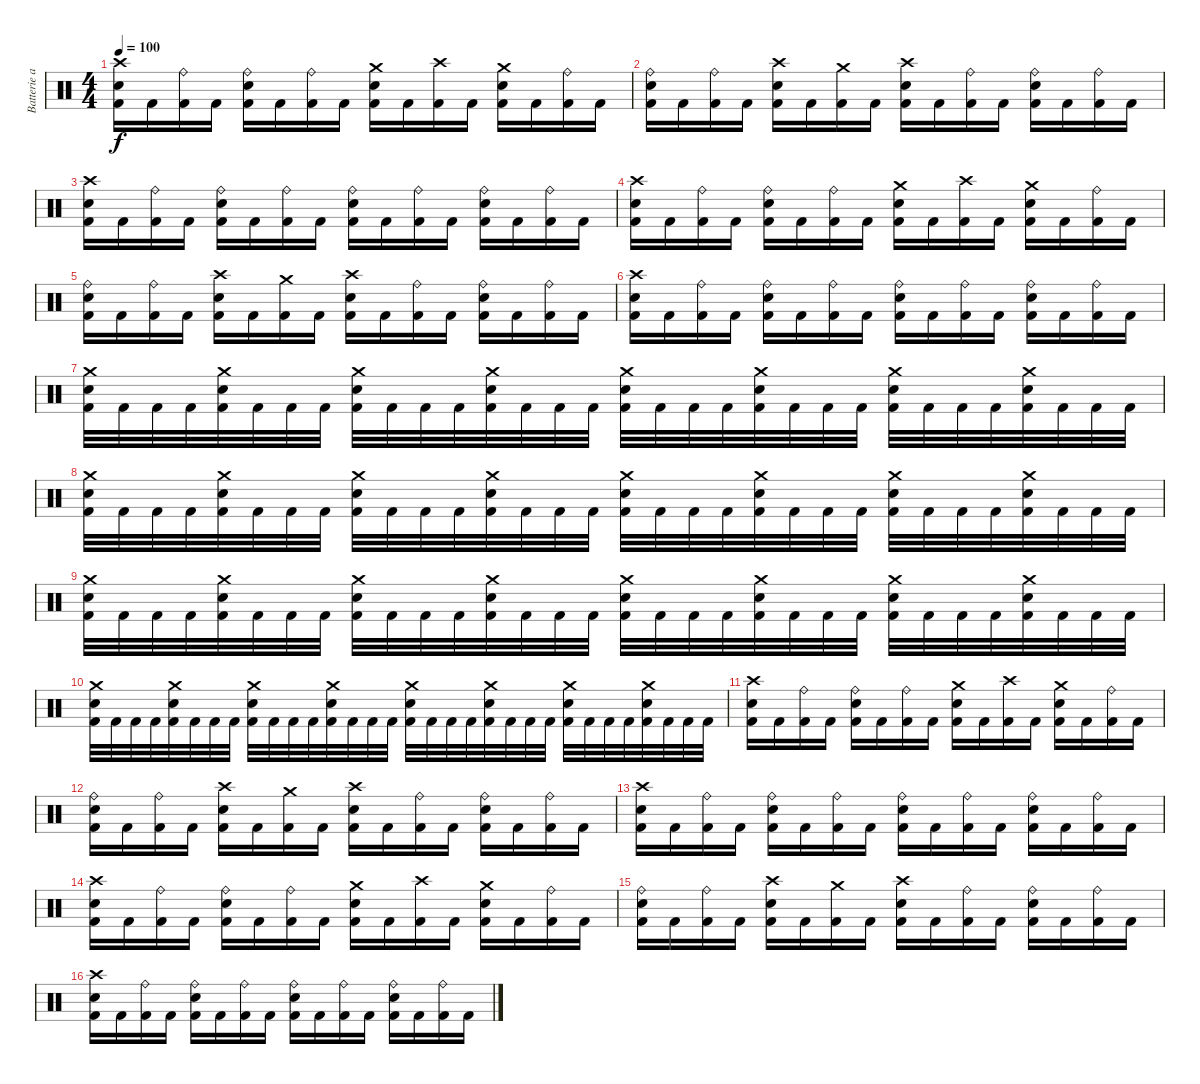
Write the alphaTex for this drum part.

\track ("Batterie and Effects" "Batterie a") {instrument percussion}
\staff {score}
\articulation defaults
\ts (4 4)
\tempo 100
\clef neutral
\ks c
("Crash high (hit)" "Electric Snare (hit)" "Kick (hit) 2").16{dy f} "Kick (hit) 2".16 ("Ride (bell)" "Kick (hit) 2").16 "Kick (hit) 2".16 ("Ride (bell)" "Electric Snare (hit)" "Kick (hit) 2").16 "Kick (hit) 2".16 ("Ride (bell)" "Kick (hit) 2").16 "Kick (hit) 2".16 ("Crash medium (hit)" "Electric Snare (hit)" "Kick (hit) 2").16 "Kick (hit) 2".16 ("Crash high (hit)" "Kick (hit) 2").16 "Kick (hit) 2".16 ("Crash medium (hit)" "Electric Snare (hit)" "Kick (hit) 2").16 "Kick (hit) 2".16 ("Ride (bell)" "Kick (hit) 2").16 "Kick (hit) 2".16 |
("Ride (bell)" "Electric Snare (hit)" "Kick (hit) 2").16 "Kick (hit) 2".16 ("Ride (bell)" "Kick (hit) 2").16 "Kick (hit) 2".16 ("Crash high (hit)" "Electric Snare (hit)" "Kick (hit) 2").16 "Kick (hit) 2".16 ("Crash medium (hit)" "Kick (hit) 2").16 "Kick (hit) 2".16 ("Crash high (hit)" "Electric Snare (hit)" "Kick (hit) 2").16 "Kick (hit) 2".16 ("Ride (bell)" "Kick (hit) 2").16 "Kick (hit) 2".16 ("Ride (bell)" "Electric Snare (hit)" "Kick (hit) 2").16 "Kick (hit) 2".16 ("Ride (bell)" "Kick (hit) 2").16 "Kick (hit) 2".16 |
("Crash high (hit)" "Electric Snare (hit)" "Kick (hit) 2").16 "Kick (hit) 2".16 ("Ride (bell)" "Kick (hit) 2").16 "Kick (hit) 2".16 ("Ride (bell)" "Electric Snare (hit)" "Kick (hit) 2").16 "Kick (hit) 2".16 ("Ride (bell)" "Kick (hit) 2").16 "Kick (hit) 2".16 ("Ride (bell)" "Electric Snare (hit)" "Kick (hit) 2").16 "Kick (hit) 2".16 ("Ride (bell)" "Kick (hit) 2").16 "Kick (hit) 2".16 ("Ride (bell)" "Electric Snare (hit)" "Kick (hit) 2").16 "Kick (hit) 2".16 ("Ride (bell)" "Kick (hit) 2").16 "Kick (hit) 2".16 |
("Crash high (hit)" "Electric Snare (hit)" "Kick (hit) 2").16 "Kick (hit) 2".16 ("Ride (bell)" "Kick (hit) 2").16 "Kick (hit) 2".16 ("Ride (bell)" "Electric Snare (hit)" "Kick (hit) 2").16 "Kick (hit) 2".16 ("Ride (bell)" "Kick (hit) 2").16 "Kick (hit) 2".16 ("Crash medium (hit)" "Electric Snare (hit)" "Kick (hit) 2").16 "Kick (hit) 2".16 ("Crash high (hit)" "Kick (hit) 2").16 "Kick (hit) 2".16 ("Crash medium (hit)" "Electric Snare (hit)" "Kick (hit) 2").16 "Kick (hit) 2".16 ("Ride (bell)" "Kick (hit) 2").16 "Kick (hit) 2".16 |
("Ride (bell)" "Electric Snare (hit)" "Kick (hit) 2").16 "Kick (hit) 2".16 ("Ride (bell)" "Kick (hit) 2").16 "Kick (hit) 2".16 ("Crash high (hit)" "Electric Snare (hit)" "Kick (hit) 2").16 "Kick (hit) 2".16 ("Crash medium (hit)" "Kick (hit) 2").16 "Kick (hit) 2".16 ("Crash high (hit)" "Electric Snare (hit)" "Kick (hit) 2").16 "Kick (hit) 2".16 ("Ride (bell)" "Kick (hit) 2").16 "Kick (hit) 2".16 ("Ride (bell)" "Electric Snare (hit)" "Kick (hit) 2").16 "Kick (hit) 2".16 ("Ride (bell)" "Kick (hit) 2").16 "Kick (hit) 2".16 |
("Crash high (hit)" "Electric Snare (hit)" "Kick (hit) 2").16 "Kick (hit) 2".16 ("Ride (bell)" "Kick (hit) 2").16 "Kick (hit) 2".16 ("Ride (bell)" "Electric Snare (hit)" "Kick (hit) 2").16 "Kick (hit) 2".16 ("Ride (bell)" "Kick (hit) 2").16 "Kick (hit) 2".16 ("Ride (bell)" "Electric Snare (hit)" "Kick (hit) 2").16 "Kick (hit) 2".16 ("Ride (bell)" "Kick (hit) 2").16 "Kick (hit) 2".16 ("Ride (bell)" "Electric Snare (hit)" "Kick (hit) 2").16 "Kick (hit) 2".16 ("Ride (bell)" "Kick (hit) 2").16 "Kick (hit) 2".16 |
("Crash medium (hit)" "Electric Snare (hit)" "Kick (hit) 2").32 "Kick (hit) 2".32 "Kick (hit) 2".32 "Kick (hit) 2".32 ("Crash medium (hit)" "Electric Snare (hit)" "Kick (hit) 2").32 "Kick (hit) 2".32 "Kick (hit) 2".32 "Kick (hit) 2".32 ("Crash medium (hit)" "Electric Snare (hit)" "Kick (hit) 2").32 "Kick (hit) 2".32 "Kick (hit) 2".32 "Kick (hit) 2".32 ("Crash medium (hit)" "Electric Snare (hit)" "Kick (hit) 2").32 "Kick (hit) 2".32 "Kick (hit) 2".32 "Kick (hit) 2".32 ("Crash medium (hit)" "Electric Snare (hit)" "Kick (hit) 2").32 "Kick (hit) 2".32 "Kick (hit) 2".32 "Kick (hit) 2".32 ("Crash medium (hit)" "Electric Snare (hit)" "Kick (hit) 2").32 "Kick (hit) 2".32 "Kick (hit) 2".32 "Kick (hit) 2".32 ("Crash medium (hit)" "Electric Snare (hit)" "Kick (hit) 2").32 "Kick (hit) 2".32 "Kick (hit) 2".32 "Kick (hit) 2".32 ("Crash medium (hit)" "Electric Snare (hit)" "Kick (hit) 2").32 "Kick (hit) 2".32 "Kick (hit) 2".32 "Kick (hit) 2".32 |
("Crash medium (hit)" "Electric Snare (hit)" "Kick (hit) 2").32 "Kick (hit) 2".32 "Kick (hit) 2".32 "Kick (hit) 2".32 ("Crash medium (hit)" "Electric Snare (hit)" "Kick (hit) 2").32 "Kick (hit) 2".32 "Kick (hit) 2".32 "Kick (hit) 2".32 ("Crash medium (hit)" "Electric Snare (hit)" "Kick (hit) 2").32 "Kick (hit) 2".32 "Kick (hit) 2".32 "Kick (hit) 2".32 ("Crash medium (hit)" "Electric Snare (hit)" "Kick (hit) 2").32 "Kick (hit) 2".32 "Kick (hit) 2".32 "Kick (hit) 2".32 ("Crash medium (hit)" "Electric Snare (hit)" "Kick (hit) 2").32 "Kick (hit) 2".32 "Kick (hit) 2".32 "Kick (hit) 2".32 ("Crash medium (hit)" "Electric Snare (hit)" "Kick (hit) 2").32 "Kick (hit) 2".32 "Kick (hit) 2".32 "Kick (hit) 2".32 ("Crash medium (hit)" "Electric Snare (hit)" "Kick (hit) 2").32 "Kick (hit) 2".32 "Kick (hit) 2".32 "Kick (hit) 2".32 ("Crash medium (hit)" "Electric Snare (hit)" "Kick (hit) 2").32 "Kick (hit) 2".32 "Kick (hit) 2".32 "Kick (hit) 2".32 |
("Crash medium (hit)" "Electric Snare (hit)" "Kick (hit) 2").32 "Kick (hit) 2".32 "Kick (hit) 2".32 "Kick (hit) 2".32 ("Crash medium (hit)" "Electric Snare (hit)" "Kick (hit) 2").32 "Kick (hit) 2".32 "Kick (hit) 2".32 "Kick (hit) 2".32 ("Crash medium (hit)" "Electric Snare (hit)" "Kick (hit) 2").32 "Kick (hit) 2".32 "Kick (hit) 2".32 "Kick (hit) 2".32 ("Crash medium (hit)" "Electric Snare (hit)" "Kick (hit) 2").32 "Kick (hit) 2".32 "Kick (hit) 2".32 "Kick (hit) 2".32 ("Crash medium (hit)" "Electric Snare (hit)" "Kick (hit) 2").32 "Kick (hit) 2".32 "Kick (hit) 2".32 "Kick (hit) 2".32 ("Crash medium (hit)" "Electric Snare (hit)" "Kick (hit) 2").32 "Kick (hit) 2".32 "Kick (hit) 2".32 "Kick (hit) 2".32 ("Crash medium (hit)" "Electric Snare (hit)" "Kick (hit) 2").32 "Kick (hit) 2".32 "Kick (hit) 2".32 "Kick (hit) 2".32 ("Crash medium (hit)" "Electric Snare (hit)" "Kick (hit) 2").32 "Kick (hit) 2".32 "Kick (hit) 2".32 "Kick (hit) 2".32 |
("Crash medium (hit)" "Electric Snare (hit)" "Kick (hit) 2").32 "Kick (hit) 2".32 "Kick (hit) 2".32 "Kick (hit) 2".32 ("Crash medium (hit)" "Electric Snare (hit)" "Kick (hit) 2").32 "Kick (hit) 2".32 "Kick (hit) 2".32 "Kick (hit) 2".32 ("Crash medium (hit)" "Electric Snare (hit)" "Kick (hit) 2").32 "Kick (hit) 2".32 "Kick (hit) 2".32 "Kick (hit) 2".32 ("Crash medium (hit)" "Electric Snare (hit)" "Kick (hit) 2").32 "Kick (hit) 2".32 "Kick (hit) 2".32 "Kick (hit) 2".32 ("Crash medium (hit)" "Electric Snare (hit)" "Kick (hit) 2").32 "Kick (hit) 2".32 "Kick (hit) 2".32 "Kick (hit) 2".32 ("Crash medium (hit)" "Electric Snare (hit)" "Kick (hit) 2").32 "Kick (hit) 2".32 "Kick (hit) 2".32 "Kick (hit) 2".32 ("Crash medium (hit)" "Electric Snare (hit)" "Kick (hit) 2").32 "Kick (hit) 2".32 "Kick (hit) 2".32 "Kick (hit) 2".32 ("Crash medium (hit)" "Electric Snare (hit)" "Kick (hit) 2").32 "Kick (hit) 2".32 "Kick (hit) 2".32 "Kick (hit) 2".32 |
("Crash high (hit)" "Electric Snare (hit)" "Kick (hit) 2").16 "Kick (hit) 2".16 ("Ride (bell)" "Kick (hit) 2").16 "Kick (hit) 2".16 ("Ride (bell)" "Electric Snare (hit)" "Kick (hit) 2").16 "Kick (hit) 2".16 ("Ride (bell)" "Kick (hit) 2").16 "Kick (hit) 2".16 ("Crash medium (hit)" "Electric Snare (hit)" "Kick (hit) 2").16 "Kick (hit) 2".16 ("Crash high (hit)" "Kick (hit) 2").16 "Kick (hit) 2".16 ("Crash medium (hit)" "Electric Snare (hit)" "Kick (hit) 2").16 "Kick (hit) 2".16 ("Ride (bell)" "Kick (hit) 2").16 "Kick (hit) 2".16 |
("Ride (bell)" "Electric Snare (hit)" "Kick (hit) 2").16 "Kick (hit) 2".16 ("Ride (bell)" "Kick (hit) 2").16 "Kick (hit) 2".16 ("Crash high (hit)" "Electric Snare (hit)" "Kick (hit) 2").16 "Kick (hit) 2".16 ("Crash medium (hit)" "Kick (hit) 2").16 "Kick (hit) 2".16 ("Crash high (hit)" "Electric Snare (hit)" "Kick (hit) 2").16 "Kick (hit) 2".16 ("Ride (bell)" "Kick (hit) 2").16 "Kick (hit) 2".16 ("Ride (bell)" "Electric Snare (hit)" "Kick (hit) 2").16 "Kick (hit) 2".16 ("Ride (bell)" "Kick (hit) 2").16 "Kick (hit) 2".16 |
("Crash high (hit)" "Electric Snare (hit)" "Kick (hit) 2").16 "Kick (hit) 2".16 ("Ride (bell)" "Kick (hit) 2").16 "Kick (hit) 2".16 ("Ride (bell)" "Electric Snare (hit)" "Kick (hit) 2").16 "Kick (hit) 2".16 ("Ride (bell)" "Kick (hit) 2").16 "Kick (hit) 2".16 ("Ride (bell)" "Electric Snare (hit)" "Kick (hit) 2").16 "Kick (hit) 2".16 ("Ride (bell)" "Kick (hit) 2").16 "Kick (hit) 2".16 ("Ride (bell)" "Electric Snare (hit)" "Kick (hit) 2").16 "Kick (hit) 2".16 ("Ride (bell)" "Kick (hit) 2").16 "Kick (hit) 2".16 |
("Crash high (hit)" "Electric Snare (hit)" "Kick (hit) 2").16 "Kick (hit) 2".16 ("Ride (bell)" "Kick (hit) 2").16 "Kick (hit) 2".16 ("Ride (bell)" "Electric Snare (hit)" "Kick (hit) 2").16 "Kick (hit) 2".16 ("Ride (bell)" "Kick (hit) 2").16 "Kick (hit) 2".16 ("Crash medium (hit)" "Electric Snare (hit)" "Kick (hit) 2").16 "Kick (hit) 2".16 ("Crash high (hit)" "Kick (hit) 2").16 "Kick (hit) 2".16 ("Crash medium (hit)" "Electric Snare (hit)" "Kick (hit) 2").16 "Kick (hit) 2".16 ("Ride (bell)" "Kick (hit) 2").16 "Kick (hit) 2".16 |
("Ride (bell)" "Electric Snare (hit)" "Kick (hit) 2").16 "Kick (hit) 2".16 ("Ride (bell)" "Kick (hit) 2").16 "Kick (hit) 2".16 ("Crash high (hit)" "Electric Snare (hit)" "Kick (hit) 2").16 "Kick (hit) 2".16 ("Crash medium (hit)" "Kick (hit) 2").16 "Kick (hit) 2".16 ("Crash high (hit)" "Electric Snare (hit)" "Kick (hit) 2").16 "Kick (hit) 2".16 ("Ride (bell)" "Kick (hit) 2").16 "Kick (hit) 2".16 ("Ride (bell)" "Electric Snare (hit)" "Kick (hit) 2").16 "Kick (hit) 2".16 ("Ride (bell)" "Kick (hit) 2").16 "Kick (hit) 2".16 |
("Crash high (hit)" "Electric Snare (hit)" "Kick (hit) 2").16 "Kick (hit) 2".16 ("Ride (bell)" "Kick (hit) 2").16 "Kick (hit) 2".16 ("Ride (bell)" "Electric Snare (hit)" "Kick (hit) 2").16 "Kick (hit) 2".16 ("Ride (bell)" "Kick (hit) 2").16 "Kick (hit) 2".16 ("Ride (bell)" "Electric Snare (hit)" "Kick (hit) 2").16 "Kick (hit) 2".16 ("Ride (bell)" "Kick (hit) 2").16 "Kick (hit) 2".16 ("Ride (bell)" "Electric Snare (hit)" "Kick (hit) 2").16 "Kick (hit) 2".16 ("Ride (bell)" "Kick (hit) 2").16 "Kick (hit) 2".16
